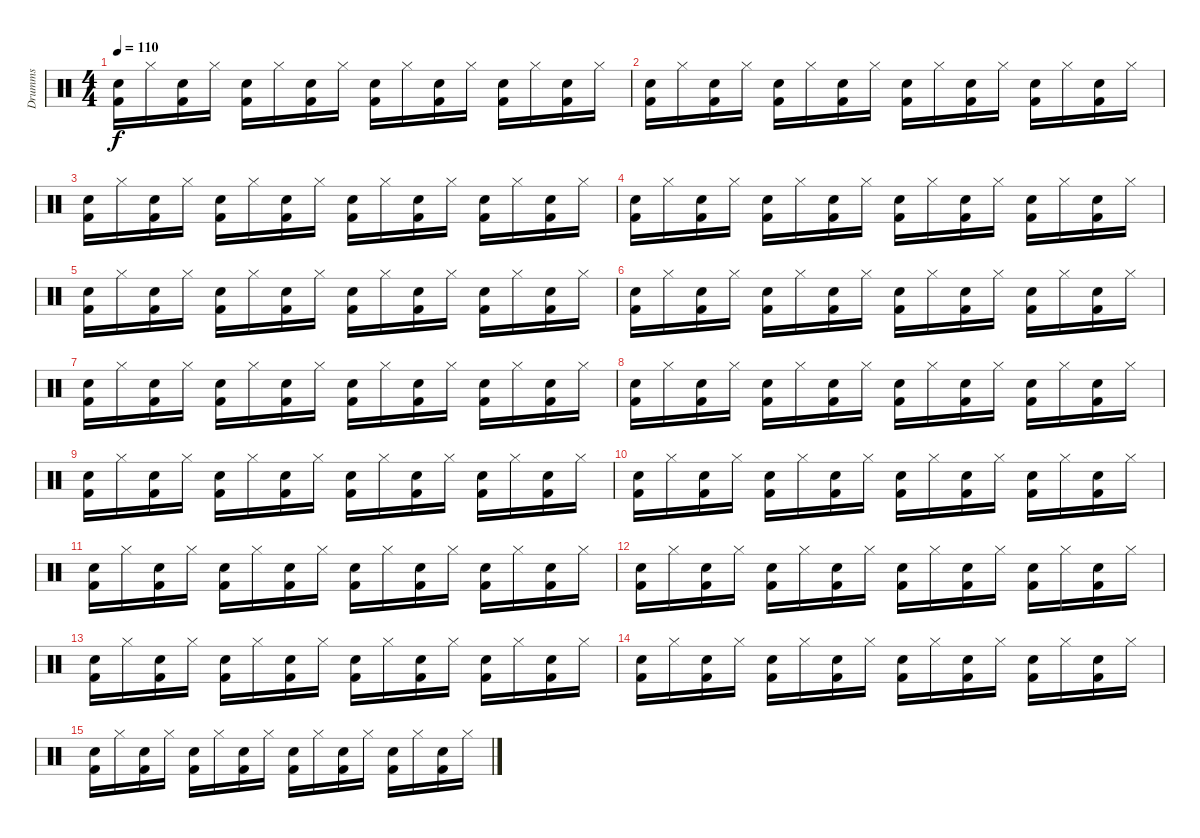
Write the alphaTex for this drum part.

\track ("Drumms" "Drumms") {instrument percussion}
\staff {score}
\articulation defaults
\ts (4 4)
\tempo 110
\clef neutral
\ks c
("Kick (hit) 2" "Snare (hit) 2").16{dy f} "Hi-Hat (closed)".16 ("Kick (hit) 2" "Snare (hit) 2").16 "Hi-Hat (closed)".16 ("Kick (hit) 2" "Snare (hit) 2").16 "Hi-Hat (closed)".16 ("Kick (hit) 2" "Snare (hit) 2").16 "Hi-Hat (closed)".16 ("Kick (hit) 2" "Snare (hit) 2").16 "Hi-Hat (closed)".16 ("Kick (hit) 2" "Snare (hit) 2").16 "Hi-Hat (closed)".16 ("Kick (hit) 2" "Snare (hit) 2").16 "Hi-Hat (closed)".16 ("Kick (hit) 2" "Snare (hit) 2").16 "Hi-Hat (closed)".16 |
("Kick (hit) 2" "Snare (hit) 2").16 "Hi-Hat (closed)".16 ("Kick (hit) 2" "Snare (hit) 2").16 "Hi-Hat (closed)".16 ("Kick (hit) 2" "Snare (hit) 2").16 "Hi-Hat (closed)".16 ("Kick (hit) 2" "Snare (hit) 2").16 "Hi-Hat (closed)".16 ("Kick (hit) 2" "Snare (hit) 2").16 "Hi-Hat (closed)".16 ("Kick (hit) 2" "Snare (hit) 2").16 "Hi-Hat (closed)".16 ("Kick (hit) 2" "Snare (hit) 2").16 "Hi-Hat (closed)".16 ("Kick (hit) 2" "Snare (hit) 2").16 "Hi-Hat (closed)".16 |
("Kick (hit) 2" "Snare (hit) 2").16 "Hi-Hat (closed)".16 ("Kick (hit) 2" "Snare (hit) 2").16 "Hi-Hat (closed)".16 ("Kick (hit) 2" "Snare (hit) 2").16 "Hi-Hat (closed)".16 ("Kick (hit) 2" "Snare (hit) 2").16 "Hi-Hat (closed)".16 ("Kick (hit) 2" "Snare (hit) 2").16 "Hi-Hat (closed)".16 ("Kick (hit) 2" "Snare (hit) 2").16 "Hi-Hat (closed)".16 ("Kick (hit) 2" "Snare (hit) 2").16 "Hi-Hat (closed)".16 ("Kick (hit) 2" "Snare (hit) 2").16 "Hi-Hat (closed)".16 |
("Kick (hit) 2" "Snare (hit) 2").16 "Hi-Hat (closed)".16 ("Kick (hit) 2" "Snare (hit) 2").16 "Hi-Hat (closed)".16 ("Kick (hit) 2" "Snare (hit) 2").16 "Hi-Hat (closed)".16 ("Kick (hit) 2" "Snare (hit) 2").16 "Hi-Hat (closed)".16 ("Kick (hit) 2" "Snare (hit) 2").16 "Hi-Hat (closed)".16 ("Kick (hit) 2" "Snare (hit) 2").16 "Hi-Hat (closed)".16 ("Kick (hit) 2" "Snare (hit) 2").16 "Hi-Hat (closed)".16 ("Kick (hit) 2" "Snare (hit) 2").16 "Hi-Hat (closed)".16 |
("Kick (hit) 2" "Snare (hit) 2").16 "Hi-Hat (closed)".16 ("Kick (hit) 2" "Snare (hit) 2").16 "Hi-Hat (closed)".16 ("Kick (hit) 2" "Snare (hit) 2").16 "Hi-Hat (closed)".16 ("Kick (hit) 2" "Snare (hit) 2").16 "Hi-Hat (closed)".16 ("Kick (hit) 2" "Snare (hit) 2").16 "Hi-Hat (closed)".16 ("Kick (hit) 2" "Snare (hit) 2").16 "Hi-Hat (closed)".16 ("Kick (hit) 2" "Snare (hit) 2").16 "Hi-Hat (closed)".16 ("Kick (hit) 2" "Snare (hit) 2").16 "Hi-Hat (closed)".16 |
("Kick (hit) 2" "Snare (hit) 2").16 "Hi-Hat (closed)".16 ("Kick (hit) 2" "Snare (hit) 2").16 "Hi-Hat (closed)".16 ("Kick (hit) 2" "Snare (hit) 2").16 "Hi-Hat (closed)".16 ("Kick (hit) 2" "Snare (hit) 2").16 "Hi-Hat (closed)".16 ("Kick (hit) 2" "Snare (hit) 2").16 "Hi-Hat (closed)".16 ("Kick (hit) 2" "Snare (hit) 2").16 "Hi-Hat (closed)".16 ("Kick (hit) 2" "Snare (hit) 2").16 "Hi-Hat (closed)".16 ("Kick (hit) 2" "Snare (hit) 2").16 "Hi-Hat (closed)".16 |
("Kick (hit) 2" "Snare (hit) 2").16 "Hi-Hat (closed)".16 ("Kick (hit) 2" "Snare (hit) 2").16 "Hi-Hat (closed)".16 ("Kick (hit) 2" "Snare (hit) 2").16 "Hi-Hat (closed)".16 ("Kick (hit) 2" "Snare (hit) 2").16 "Hi-Hat (closed)".16 ("Kick (hit) 2" "Snare (hit) 2").16 "Hi-Hat (closed)".16 ("Kick (hit) 2" "Snare (hit) 2").16 "Hi-Hat (closed)".16 ("Kick (hit) 2" "Snare (hit) 2").16 "Hi-Hat (closed)".16 ("Kick (hit) 2" "Snare (hit) 2").16 "Hi-Hat (closed)".16 |
("Kick (hit) 2" "Snare (hit) 2").16 "Hi-Hat (closed)".16 ("Kick (hit) 2" "Snare (hit) 2").16 "Hi-Hat (closed)".16 ("Kick (hit) 2" "Snare (hit) 2").16 "Hi-Hat (closed)".16 ("Kick (hit) 2" "Snare (hit) 2").16 "Hi-Hat (closed)".16 ("Kick (hit) 2" "Snare (hit) 2").16 "Hi-Hat (closed)".16 ("Kick (hit) 2" "Snare (hit) 2").16 "Hi-Hat (closed)".16 ("Kick (hit) 2" "Snare (hit) 2").16 "Hi-Hat (closed)".16 ("Kick (hit) 2" "Snare (hit) 2").16 "Hi-Hat (closed)".16 |
("Kick (hit) 2" "Snare (hit) 2").16 "Hi-Hat (closed)".16 ("Kick (hit) 2" "Snare (hit) 2").16 "Hi-Hat (closed)".16 ("Kick (hit) 2" "Snare (hit) 2").16 "Hi-Hat (closed)".16 ("Kick (hit) 2" "Snare (hit) 2").16 "Hi-Hat (closed)".16 ("Kick (hit) 2" "Snare (hit) 2").16 "Hi-Hat (closed)".16 ("Kick (hit) 2" "Snare (hit) 2").16 "Hi-Hat (closed)".16 ("Kick (hit) 2" "Snare (hit) 2").16 "Hi-Hat (closed)".16 ("Kick (hit) 2" "Snare (hit) 2").16 "Hi-Hat (closed)".16 |
("Kick (hit) 2" "Snare (hit) 2").16 "Hi-Hat (closed)".16 ("Kick (hit) 2" "Snare (hit) 2").16 "Hi-Hat (closed)".16 ("Kick (hit) 2" "Snare (hit) 2").16 "Hi-Hat (closed)".16 ("Kick (hit) 2" "Snare (hit) 2").16 "Hi-Hat (closed)".16 ("Kick (hit) 2" "Snare (hit) 2").16 "Hi-Hat (closed)".16 ("Kick (hit) 2" "Snare (hit) 2").16 "Hi-Hat (closed)".16 ("Kick (hit) 2" "Snare (hit) 2").16 "Hi-Hat (closed)".16 ("Kick (hit) 2" "Snare (hit) 2").16 "Hi-Hat (closed)".16 |
("Kick (hit) 2" "Snare (hit) 2").16 "Hi-Hat (closed)".16 ("Kick (hit) 2" "Snare (hit) 2").16 "Hi-Hat (closed)".16 ("Kick (hit) 2" "Snare (hit) 2").16 "Hi-Hat (closed)".16 ("Kick (hit) 2" "Snare (hit) 2").16 "Hi-Hat (closed)".16 ("Kick (hit) 2" "Snare (hit) 2").16 "Hi-Hat (closed)".16 ("Kick (hit) 2" "Snare (hit) 2").16 "Hi-Hat (closed)".16 ("Kick (hit) 2" "Snare (hit) 2").16 "Hi-Hat (closed)".16 ("Kick (hit) 2" "Snare (hit) 2").16 "Hi-Hat (closed)".16 |
("Kick (hit) 2" "Snare (hit) 2").16 "Hi-Hat (closed)".16 ("Kick (hit) 2" "Snare (hit) 2").16 "Hi-Hat (closed)".16 ("Kick (hit) 2" "Snare (hit) 2").16 "Hi-Hat (closed)".16 ("Kick (hit) 2" "Snare (hit) 2").16 "Hi-Hat (closed)".16 ("Kick (hit) 2" "Snare (hit) 2").16 "Hi-Hat (closed)".16 ("Kick (hit) 2" "Snare (hit) 2").16 "Hi-Hat (closed)".16 ("Kick (hit) 2" "Snare (hit) 2").16 "Hi-Hat (closed)".16 ("Kick (hit) 2" "Snare (hit) 2").16 "Hi-Hat (closed)".16 |
("Kick (hit) 2" "Snare (hit) 2").16 "Hi-Hat (closed)".16 ("Kick (hit) 2" "Snare (hit) 2").16 "Hi-Hat (closed)".16 ("Kick (hit) 2" "Snare (hit) 2").16 "Hi-Hat (closed)".16 ("Kick (hit) 2" "Snare (hit) 2").16 "Hi-Hat (closed)".16 ("Kick (hit) 2" "Snare (hit) 2").16 "Hi-Hat (closed)".16 ("Kick (hit) 2" "Snare (hit) 2").16 "Hi-Hat (closed)".16 ("Kick (hit) 2" "Snare (hit) 2").16 "Hi-Hat (closed)".16 ("Kick (hit) 2" "Snare (hit) 2").16 "Hi-Hat (closed)".16 |
("Kick (hit) 2" "Snare (hit) 2").16 "Hi-Hat (closed)".16 ("Kick (hit) 2" "Snare (hit) 2").16 "Hi-Hat (closed)".16 ("Kick (hit) 2" "Snare (hit) 2").16 "Hi-Hat (closed)".16 ("Kick (hit) 2" "Snare (hit) 2").16 "Hi-Hat (closed)".16 ("Kick (hit) 2" "Snare (hit) 2").16 "Hi-Hat (closed)".16 ("Kick (hit) 2" "Snare (hit) 2").16 "Hi-Hat (closed)".16 ("Kick (hit) 2" "Snare (hit) 2").16 "Hi-Hat (closed)".16 ("Kick (hit) 2" "Snare (hit) 2").16 "Hi-Hat (closed)".16 |
("Kick (hit) 2" "Snare (hit) 2").16 "Hi-Hat (closed)".16 ("Kick (hit) 2" "Snare (hit) 2").16 "Hi-Hat (closed)".16 ("Kick (hit) 2" "Snare (hit) 2").16 "Hi-Hat (closed)".16 ("Kick (hit) 2" "Snare (hit) 2").16 "Hi-Hat (closed)".16 ("Kick (hit) 2" "Snare (hit) 2").16 "Hi-Hat (closed)".16 ("Kick (hit) 2" "Snare (hit) 2").16 "Hi-Hat (closed)".16 ("Kick (hit) 2" "Snare (hit) 2").16 "Hi-Hat (closed)".16 ("Kick (hit) 2" "Snare (hit) 2").16 "Hi-Hat (closed)".16
